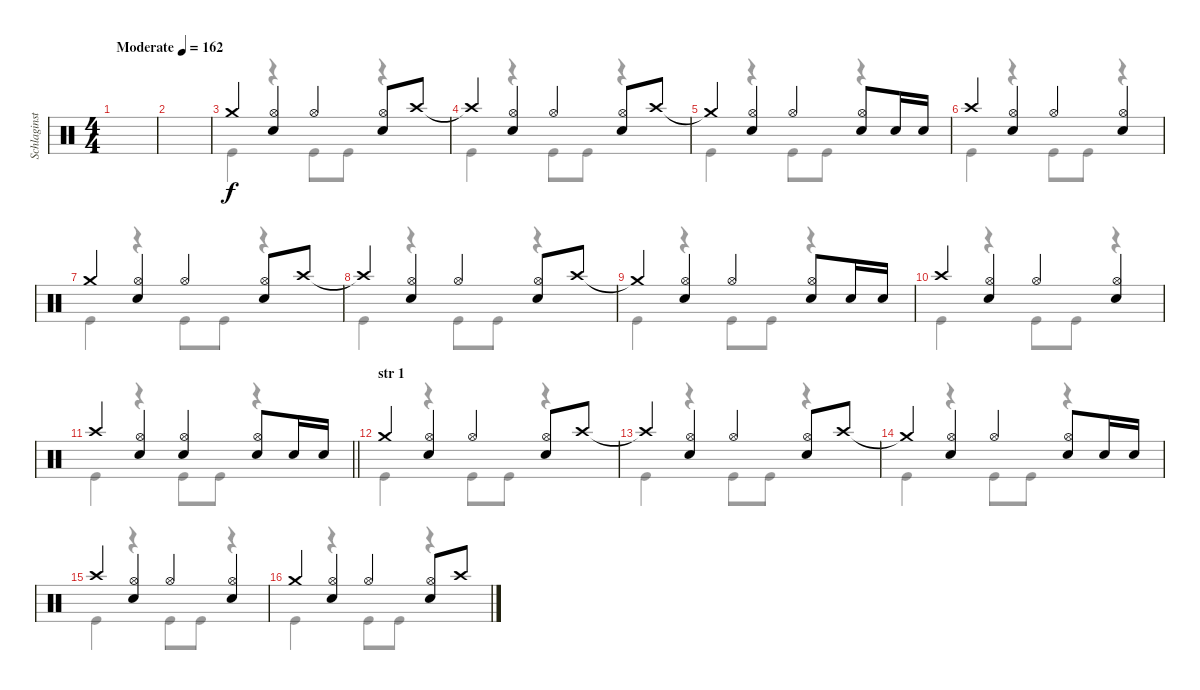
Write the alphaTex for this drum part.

\track ("Schlaginstrumente - Auswahl" "Schlaginst") {instrument percussion}
\staff {score}
\articulation defaults
\voice
\ts (4 4)
\tempo (162 "Moderate")
\clef neutral
\ks c
|
|
"Crash medium (hit)".4 ("Hi-Hat (open)" "Snare (hit) 2").4 "Hi-Hat (open)".4 ("Hi-Hat (open)" "Snare (hit) 2").8 "Crash high (hit)".8 |
"Crash high (hit)"{t}.4 ("Hi-Hat (open)" "Snare (hit) 2").4 "Hi-Hat (open)".4 ("Hi-Hat (open)" "Snare (hit) 2").8 "Crash high (hit)".8 |
"Crash medium (hit)"{t}.4 ("Hi-Hat (open)" "Snare (hit) 2").4 "Hi-Hat (open)".4 ("Hi-Hat (open)" "Snare (hit) 2").8 "Snare (hit) 2".16 "Snare (hit) 2".16 |
"Crash high (hit)".4 ("Hi-Hat (open)" "Snare (hit) 2").4 "Hi-Hat (open)".4 ("Hi-Hat (open)" "Snare (hit) 2").4 |
"Crash medium (hit)".4 ("Hi-Hat (open)" "Snare (hit) 2").4 "Hi-Hat (open)".4 ("Hi-Hat (open)" "Snare (hit) 2").8 "Crash high (hit)".8 |
"Crash high (hit)"{t}.4 ("Hi-Hat (open)" "Snare (hit) 2").4 "Hi-Hat (open)".4 ("Hi-Hat (open)" "Snare (hit) 2").8 "Crash high (hit)".8 |
"Crash medium (hit)"{t}.4 ("Hi-Hat (open)" "Snare (hit) 2").4 "Hi-Hat (open)".4 ("Hi-Hat (open)" "Snare (hit) 2").8 "Snare (hit) 2".16 "Snare (hit) 2".16 |
"Crash high (hit)".4 ("Hi-Hat (open)" "Snare (hit) 2").4 "Hi-Hat (open)".4 ("Hi-Hat (open)" "Snare (hit) 2").4 |
\barLineRight lightlight "Crash high (hit)".4
("Hi-Hat (open)" "Snare (hit) 2").4 ("Hi-Hat (open)" "Snare (hit) 2").4 ("Hi-Hat (open)" "Snare (hit) 2").8 "Snare (hit) 2".16 "Snare (hit) 2".16 |
\section ("" "str 1")
"Crash medium (hit)".4 ("Hi-Hat (open)" "Snare (hit) 2").4 "Hi-Hat (open)".4 ("Hi-Hat (open)" "Snare (hit) 2").8 "Crash high (hit)".8 |
"Crash high (hit)"{t}.4 ("Hi-Hat (open)" "Snare (hit) 2").4 "Hi-Hat (open)".4 ("Hi-Hat (open)" "Snare (hit) 2").8 "Crash high (hit)".8 |
"Crash medium (hit)"{t}.4 ("Hi-Hat (open)" "Snare (hit) 2").4 "Hi-Hat (open)".4 ("Hi-Hat (open)" "Snare (hit) 2").8 "Snare (hit) 2".16 "Snare (hit) 2".16 |
"Crash high (hit)".4 ("Hi-Hat (open)" "Snare (hit) 2").4 "Hi-Hat (open)".4 ("Hi-Hat (open)" "Snare (hit) 2").4 |
"Crash medium (hit)".4 ("Hi-Hat (open)" "Snare (hit) 2").4 "Hi-Hat (open)".4 ("Hi-Hat (open)" "Snare (hit) 2").8 "Crash high (hit)".8
\voice
\clef neutral
\ottava regular
\simile none
\ks c
|
|
"Kick (hit)".4 r.4 "Kick (hit)".8 "Kick (hit)".8 r.4 |
"Kick (hit)".4 r.4 "Kick (hit)".8 "Kick (hit)".8 r.4 |
"Kick (hit)".4 r.4 "Kick (hit)".8 "Kick (hit)".8 r.4 |
"Kick (hit)".4 r.4 "Kick (hit)".8 "Kick (hit)".8 r.4 |
"Kick (hit)".4 r.4 "Kick (hit)".8 "Kick (hit)".8 r.4 |
"Kick (hit)".4 r.4 "Kick (hit)".8 "Kick (hit)".8 r.4 |
"Kick (hit)".4 r.4 "Kick (hit)".8 "Kick (hit)".8 r.4 |
"Kick (hit)".4 r.4 "Kick (hit)".8 "Kick (hit)".8 r.4 |
\barLineRight lightlight "Kick (hit)".4
r.4 "Kick (hit)".8 "Kick (hit)".8 r.4 |
"Kick (hit)".4 r.4 "Kick (hit)".8 "Kick (hit)".8 r.4 |
"Kick (hit)".4 r.4 "Kick (hit)".8 "Kick (hit)".8 r.4 |
"Kick (hit)".4 r.4 "Kick (hit)".8 "Kick (hit)".8 r.4 |
"Kick (hit)".4 r.4 "Kick (hit)".8 "Kick (hit)".8 r.4 |
"Kick (hit)".4 r.4 "Kick (hit)".8 "Kick (hit)".8 r.4
